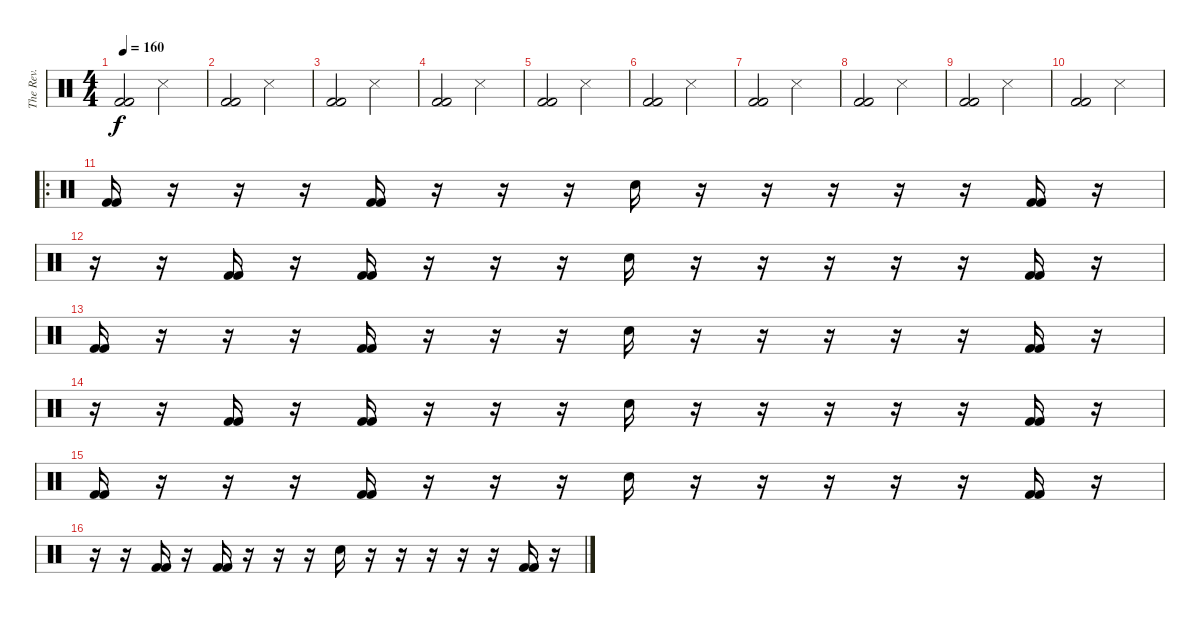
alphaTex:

\track ("The Rev." "The Rev.") {instrument percussion}
\staff {score}
\articulation defaults
\ts (4 4)
\tempo 160
\clef neutral
\ks c
("Kick (hit) 2" "Kick (hit) 2").2{dy f} "Metronome (hit)".2 |
("Kick (hit) 2" "Kick (hit) 2").2 "Metronome (hit)".2 |
("Kick (hit) 2" "Kick (hit) 2").2 "Metronome (hit)".2 |
("Kick (hit) 2" "Kick (hit) 2").2 "Metronome (hit)".2 |
("Kick (hit) 2" "Kick (hit) 2").2 "Metronome (hit)".2 |
("Kick (hit) 2" "Kick (hit) 2").2 "Metronome (hit)".2 |
("Kick (hit) 2" "Kick (hit) 2").2 "Metronome (hit)".2 |
("Kick (hit) 2" "Kick (hit) 2").2 "Metronome (hit)".2 |
("Kick (hit) 2" "Kick (hit) 2").2 "Metronome (hit)".2 |
("Kick (hit) 2" "Kick (hit) 2").2 "Metronome (hit)".2 |
\ro
("Kick (hit) 2" "Kick (hit) 2").16 r.16 r.16 r.16 ("Kick (hit) 2" "Kick (hit) 2").16 r.16 r.16 r.16 "Electric Snare (hit)".16 r.16 r.16 r.16 r.16 r.16 ("Kick (hit) 2" "Kick (hit) 2").16 r.16 |
r.16 r.16 ("Kick (hit) 2" "Kick (hit) 2").16 r.16 ("Kick (hit) 2" "Kick (hit) 2").16 r.16 r.16 r.16 "Electric Snare (hit)".16 r.16 r.16 r.16 r.16 r.16 ("Kick (hit) 2" "Kick (hit) 2").16 r.16 |
("Kick (hit) 2" "Kick (hit) 2").16 r.16 r.16 r.16 ("Kick (hit) 2" "Kick (hit) 2").16 r.16 r.16 r.16 "Electric Snare (hit)".16 r.16 r.16 r.16 r.16 r.16 ("Kick (hit) 2" "Kick (hit) 2").16 r.16 |
r.16 r.16 ("Kick (hit) 2" "Kick (hit) 2").16 r.16 ("Kick (hit) 2" "Kick (hit) 2").16 r.16 r.16 r.16 "Electric Snare (hit)".16 r.16 r.16 r.16 r.16 r.16 ("Kick (hit) 2" "Kick (hit) 2").16 r.16 |
("Kick (hit) 2" "Kick (hit) 2").16 r.16 r.16 r.16 ("Kick (hit) 2" "Kick (hit) 2").16 r.16 r.16 r.16 "Electric Snare (hit)".16 r.16 r.16 r.16 r.16 r.16 ("Kick (hit) 2" "Kick (hit) 2").16 r.16 |
r.16 r.16 ("Kick (hit) 2" "Kick (hit) 2").16 r.16 ("Kick (hit) 2" "Kick (hit) 2").16 r.16 r.16 r.16 "Electric Snare (hit)".16 r.16 r.16 r.16 r.16 r.16 ("Kick (hit) 2" "Kick (hit) 2").16 r.16
